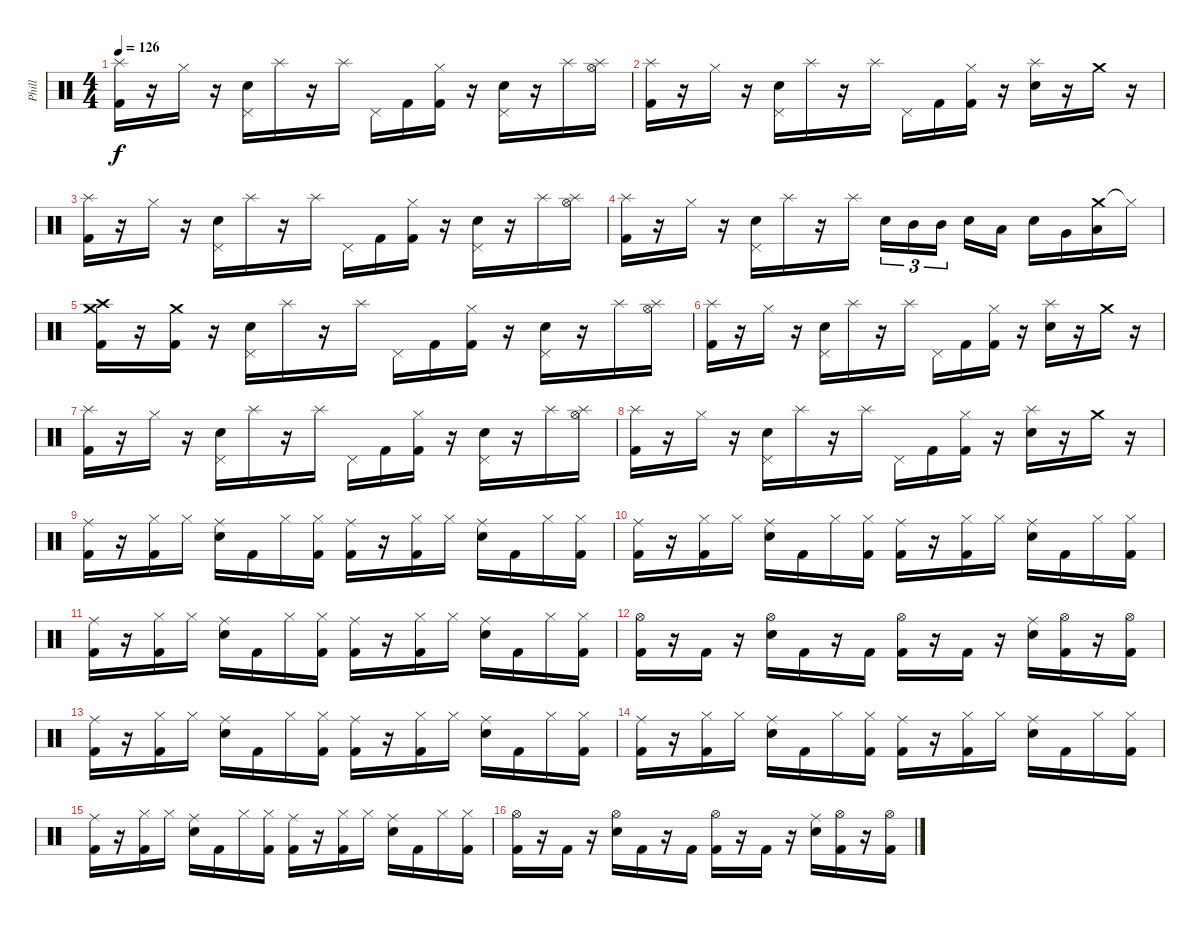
\track ("Phill" "Phill") {instrument percussion}
\staff {score}
\articulation defaults
\ts (4 4)
\tempo 126
\clef neutral
\ks c
("Splash (hit)" "Kick (hit) 2").16{dy f} r.16 "Hi-Hat (closed)".16 r.16 ("Pedal Hi-Hat (hit)" "Electric Snare (hit)").16 "Splash (hit)".16 r.16 "Splash (hit)".16 "Pedal Hi-Hat (hit)".16 "Kick (hit) 2".16 ("Hi-Hat (closed)" "Kick (hit) 2").16 r.16 ("Pedal Hi-Hat (hit)" "Electric Snare (hit)").16 r.16 "Splash (hit)".16 ("Splash (hit)" "Hi-Hat (open)").16 |
("Splash (hit)" "Kick (hit) 2").16 r.16 "Hi-Hat (closed)".16 r.16 ("Pedal Hi-Hat (hit)" "Electric Snare (hit)").16 "Splash (hit)".16 r.16 "Splash (hit)".16 "Pedal Hi-Hat (hit)".16 "Kick (hit) 2".16 ("Hi-Hat (closed)" "Kick (hit) 2").16 r.16 ("Splash (hit)" "Electric Snare (hit)").16 r.16 "Crash medium (hit)".16 r.16 |
("Splash (hit)" "Kick (hit) 2").16 r.16 "Hi-Hat (closed)".16 r.16 ("Pedal Hi-Hat (hit)" "Electric Snare (hit)").16 "Splash (hit)".16 r.16 "Splash (hit)".16 "Pedal Hi-Hat (hit)".16 "Kick (hit) 2".16 ("Hi-Hat (closed)" "Kick (hit) 2").16 r.16 ("Pedal Hi-Hat (hit)" "Electric Snare (hit)").16 r.16 "Splash (hit)".16 ("Splash (hit)" "Hi-Hat (open)").16 |
("Splash (hit)" "Kick (hit) 2").16 r.16 "Hi-Hat (closed)".16 r.16 ("Pedal Hi-Hat (hit)" "Electric Snare (hit)").16 "Splash (hit)".16 r.16 "Splash (hit)".16 "Electric Snare (hit)".16{tu (3 2)} "Mid Tom (hit)".16{tu (3 2)} "Mid Tom (hit)".16{tu (3 2)} "Electric Snare (hit)".16 "Low Tom (hit)".16 "Electric Snare (hit)".16 "Very Low Tom (hit)".16 ("Crash medium (hit)" "Low Tom (hit)").16 "Hi-Hat (closed)"{t}.16 |
("Crash medium (hit)" "Crash high (hit)" "Kick (hit) 2").16 r.16 ("Crash medium (hit)" "Kick (hit) 2").16 r.16 ("Pedal Hi-Hat (hit)" "Electric Snare (hit)").16 "Splash (hit)".16 r.16 "Splash (hit)".16 "Pedal Hi-Hat (hit)".16 "Kick (hit) 2".16 ("Hi-Hat (closed)" "Kick (hit) 2").16 r.16 ("Pedal Hi-Hat (hit)" "Electric Snare (hit)").16 r.16 "Splash (hit)".16 ("Splash (hit)" "Hi-Hat (open)").16 |
("Splash (hit)" "Kick (hit) 2").16 r.16 "Hi-Hat (closed)".16 r.16 ("Pedal Hi-Hat (hit)" "Electric Snare (hit)").16 "Splash (hit)".16 r.16 "Splash (hit)".16 "Pedal Hi-Hat (hit)".16 "Kick (hit) 2".16 ("Hi-Hat (closed)" "Kick (hit) 2").16 r.16 ("Splash (hit)" "Electric Snare (hit)").16 r.16 "Crash medium (hit)".16 r.16 |
("Splash (hit)" "Kick (hit) 2").16 r.16 "Hi-Hat (closed)".16 r.16 ("Pedal Hi-Hat (hit)" "Electric Snare (hit)").16 "Splash (hit)".16 r.16 "Splash (hit)".16 "Pedal Hi-Hat (hit)".16 "Kick (hit) 2".16 ("Hi-Hat (closed)" "Kick (hit) 2").16 r.16 ("Pedal Hi-Hat (hit)" "Electric Snare (hit)").16 r.16 "Splash (hit)".16 ("Splash (hit)" "Hi-Hat (open)").16 |
("Splash (hit)" "Kick (hit) 2").16 r.16 "Hi-Hat (closed)".16 r.16 ("Pedal Hi-Hat (hit)" "Electric Snare (hit)").16 "Splash (hit)".16 r.16 "Splash (hit)".16 "Pedal Hi-Hat (hit)".16 "Kick (hit) 2".16 ("Hi-Hat (closed)" "Kick (hit) 2").16 r.16 ("Splash (hit)" "Electric Snare (hit)").16 r.16 "Crash medium (hit)".16 r.16 |
("Ride (middle)" "Kick (hit) 2").16 r.16 ("Hi-Hat (closed)" "Kick (hit) 2").16 "Hi-Hat (closed)".16 ("Ride (middle)" "Electric Snare (hit)").16 "Kick (hit) 2".16 "Hi-Hat (closed)".16 ("Hi-Hat (closed)" "Kick (hit) 2").16 ("Ride (middle)" "Kick (hit) 2").16 r.16 ("Hi-Hat (closed)" "Kick (hit) 2").16 "Hi-Hat (closed)".16 ("Ride (middle)" "Electric Snare (hit)").16 "Kick (hit) 2".16 "Hi-Hat (closed)".16 ("Hi-Hat (closed)" "Kick (hit) 2").16 |
("Ride (middle)" "Kick (hit) 2").16 r.16 ("Hi-Hat (closed)" "Kick (hit) 2").16 "Hi-Hat (closed)".16 ("Ride (middle)" "Electric Snare (hit)").16 "Kick (hit) 2".16 "Hi-Hat (closed)".16 ("Hi-Hat (closed)" "Kick (hit) 2").16 ("Ride (middle)" "Kick (hit) 2").16 r.16 ("Hi-Hat (closed)" "Kick (hit) 2").16 "Hi-Hat (closed)".16 ("Ride (middle)" "Electric Snare (hit)").16 "Kick (hit) 2".16 "Hi-Hat (closed)".16 ("Hi-Hat (closed)" "Kick (hit) 2").16 |
("Ride (middle)" "Kick (hit) 2").16 r.16 ("Hi-Hat (closed)" "Kick (hit) 2").16 "Hi-Hat (closed)".16 ("Ride (middle)" "Electric Snare (hit)").16 "Kick (hit) 2".16 "Hi-Hat (closed)".16 ("Hi-Hat (closed)" "Kick (hit) 2").16 ("Ride (middle)" "Kick (hit) 2").16 r.16 ("Hi-Hat (closed)" "Kick (hit) 2").16 "Hi-Hat (closed)".16 ("Ride (middle)" "Electric Snare (hit)").16 "Kick (hit) 2".16 "Hi-Hat (closed)".16 ("Hi-Hat (closed)" "Kick (hit) 2").16 |
("Hi-Hat (open)" "Kick (hit) 2").16 r.16 "Kick (hit) 2".16 r.16 ("Hi-Hat (open)" "Electric Snare (hit)").16 "Kick (hit) 2".16 r.16 "Kick (hit) 2".16 ("Hi-Hat (open)" "Kick (hit) 2").16 r.16 "Kick (hit) 2".16 r.16 ("Ride (middle)" "Electric Snare (hit)").16 ("Hi-Hat (open)" "Kick (hit) 2").16 r.16 ("Hi-Hat (open)" "Kick (hit) 2").16 |
("Ride (middle)" "Kick (hit) 2").16 r.16 ("Hi-Hat (closed)" "Kick (hit) 2").16 "Hi-Hat (closed)".16 ("Ride (middle)" "Electric Snare (hit)").16 "Kick (hit) 2".16 "Hi-Hat (closed)".16 ("Hi-Hat (closed)" "Kick (hit) 2").16 ("Ride (middle)" "Kick (hit) 2").16 r.16 ("Hi-Hat (closed)" "Kick (hit) 2").16 "Hi-Hat (closed)".16 ("Ride (middle)" "Electric Snare (hit)").16 "Kick (hit) 2".16 "Hi-Hat (closed)".16 ("Hi-Hat (closed)" "Kick (hit) 2").16 |
("Ride (middle)" "Kick (hit) 2").16 r.16 ("Hi-Hat (closed)" "Kick (hit) 2").16 "Hi-Hat (closed)".16 ("Ride (middle)" "Electric Snare (hit)").16 "Kick (hit) 2".16 "Hi-Hat (closed)".16 ("Hi-Hat (closed)" "Kick (hit) 2").16 ("Ride (middle)" "Kick (hit) 2").16 r.16 ("Hi-Hat (closed)" "Kick (hit) 2").16 "Hi-Hat (closed)".16 ("Ride (middle)" "Electric Snare (hit)").16 "Kick (hit) 2".16 "Hi-Hat (closed)".16 ("Hi-Hat (closed)" "Kick (hit) 2").16 |
("Ride (middle)" "Kick (hit) 2").16 r.16 ("Hi-Hat (closed)" "Kick (hit) 2").16 "Hi-Hat (closed)".16 ("Ride (middle)" "Electric Snare (hit)").16 "Kick (hit) 2".16 "Hi-Hat (closed)".16 ("Hi-Hat (closed)" "Kick (hit) 2").16 ("Ride (middle)" "Kick (hit) 2").16 r.16 ("Hi-Hat (closed)" "Kick (hit) 2").16 "Hi-Hat (closed)".16 ("Ride (middle)" "Electric Snare (hit)").16 "Kick (hit) 2".16 "Hi-Hat (closed)".16 ("Hi-Hat (closed)" "Kick (hit) 2").16 |
("Hi-Hat (open)" "Kick (hit) 2").16 r.16 "Kick (hit) 2".16 r.16 ("Hi-Hat (open)" "Electric Snare (hit)").16 "Kick (hit) 2".16 r.16 "Kick (hit) 2".16 ("Hi-Hat (open)" "Kick (hit) 2").16 r.16 "Kick (hit) 2".16{volume 14} r.16 ("Ride (middle)" "Electric Snare (hit)").16 ("Hi-Hat (open)" "Kick (hit) 2").16 r.16 ("Hi-Hat (open)" "Kick (hit) 2").16
